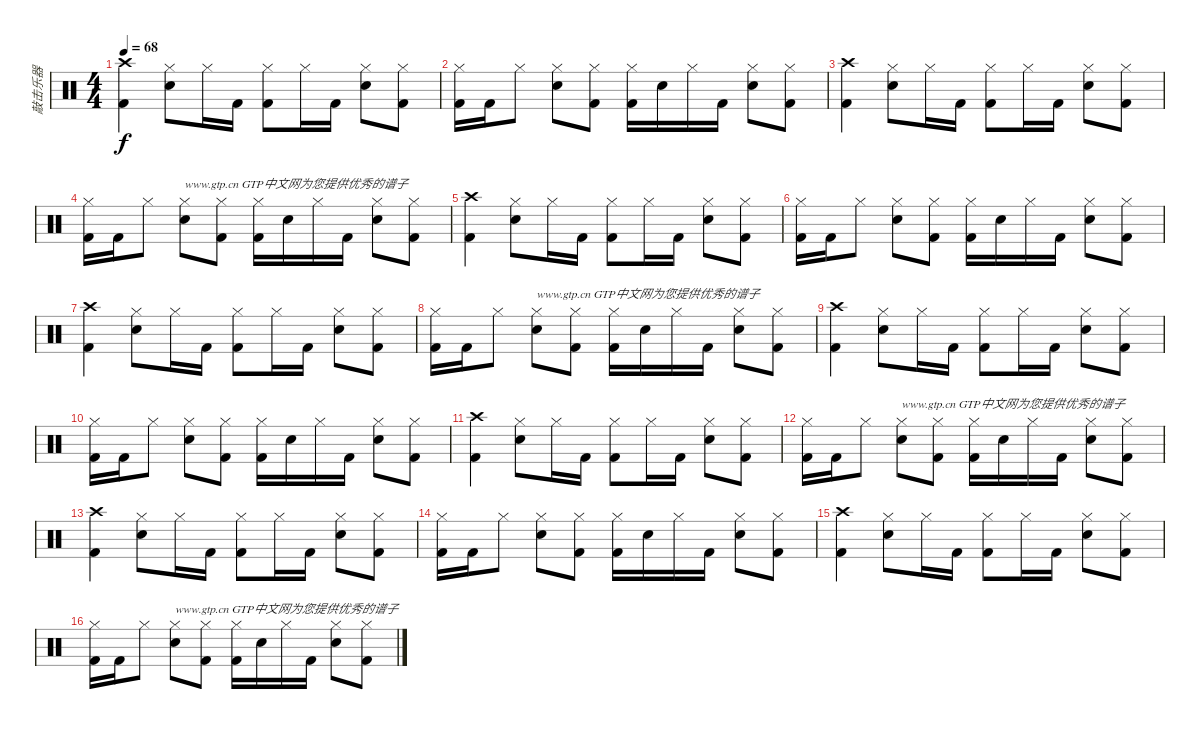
\track ("敲击乐器" "敲击乐器") {instrument percussion}
\staff {score}
\articulation defaults
\ts (4 4)
\tempo 68
\clef neutral
\ks c
("Crash high (hit)" "Kick (hit) 2").4{dy f} ("Hi-Hat (closed)" "Snare (hit) 2").8 "Hi-Hat (closed)".16 "Kick (hit) 2".16 ("Hi-Hat (closed)" "Kick (hit) 2").8 "Hi-Hat (closed)".16 "Kick (hit) 2".16 ("Hi-Hat (closed)" "Snare (hit) 2").8 ("Hi-Hat (closed)" "Kick (hit) 2").8 |
("Hi-Hat (closed)" "Kick (hit) 2").16 "Kick (hit) 2".16 "Hi-Hat (closed)".8 ("Hi-Hat (closed)" "Snare (hit) 2").8 ("Hi-Hat (closed)" "Kick (hit) 2").8 ("Hi-Hat (closed)" "Kick (hit) 2").16 "Snare (hit) 2".16 "Hi-Hat (closed)".16 "Kick (hit) 2".16 ("Hi-Hat (closed)" "Snare (hit) 2").8 ("Hi-Hat (closed)" "Kick (hit) 2").8 |
("Crash high (hit)" "Kick (hit) 2").4 ("Hi-Hat (closed)" "Snare (hit) 2").8 "Hi-Hat (closed)".16 "Kick (hit) 2".16 ("Hi-Hat (closed)" "Kick (hit) 2").8 "Hi-Hat (closed)".16 "Kick (hit) 2".16 ("Hi-Hat (closed)" "Snare (hit) 2").8 ("Hi-Hat (closed)" "Kick (hit) 2").8 |
("Hi-Hat (closed)" "Kick (hit) 2").16 "Kick (hit) 2".16 "Hi-Hat (closed)".8 ("Hi-Hat (closed)" "Snare (hit) 2").8{txt "www.gtp.cn GTP中文网为您提供优秀的谱子"} ("Hi-Hat (closed)" "Kick (hit) 2").8 ("Hi-Hat (closed)" "Kick (hit) 2").16 "Snare (hit) 2".16 "Hi-Hat (closed)".16 "Kick (hit) 2".16 ("Hi-Hat (closed)" "Snare (hit) 2").8 ("Hi-Hat (closed)" "Kick (hit) 2").8 |
("Crash high (hit)" "Kick (hit) 2").4 ("Hi-Hat (closed)" "Snare (hit) 2").8 "Hi-Hat (closed)".16 "Kick (hit) 2".16 ("Hi-Hat (closed)" "Kick (hit) 2").8 "Hi-Hat (closed)".16 "Kick (hit) 2".16 ("Hi-Hat (closed)" "Snare (hit) 2").8 ("Hi-Hat (closed)" "Kick (hit) 2").8 |
("Hi-Hat (closed)" "Kick (hit) 2").16 "Kick (hit) 2".16 "Hi-Hat (closed)".8 ("Hi-Hat (closed)" "Snare (hit) 2").8 ("Hi-Hat (closed)" "Kick (hit) 2").8 ("Hi-Hat (closed)" "Kick (hit) 2").16 "Snare (hit) 2".16 "Hi-Hat (closed)".16 "Kick (hit) 2".16 ("Hi-Hat (closed)" "Snare (hit) 2").8 ("Hi-Hat (closed)" "Kick (hit) 2").8 |
("Crash high (hit)" "Kick (hit) 2").4 ("Hi-Hat (closed)" "Snare (hit) 2").8 "Hi-Hat (closed)".16 "Kick (hit) 2".16 ("Hi-Hat (closed)" "Kick (hit) 2").8 "Hi-Hat (closed)".16 "Kick (hit) 2".16 ("Hi-Hat (closed)" "Snare (hit) 2").8 ("Hi-Hat (closed)" "Kick (hit) 2").8 |
("Hi-Hat (closed)" "Kick (hit) 2").16 "Kick (hit) 2".16 "Hi-Hat (closed)".8 ("Hi-Hat (closed)" "Snare (hit) 2").8{txt "www.gtp.cn GTP中文网为您提供优秀的谱子"} ("Hi-Hat (closed)" "Kick (hit) 2").8 ("Hi-Hat (closed)" "Kick (hit) 2").16 "Snare (hit) 2".16 "Hi-Hat (closed)".16 "Kick (hit) 2".16 ("Hi-Hat (closed)" "Snare (hit) 2").8 ("Hi-Hat (closed)" "Kick (hit) 2").8 |
("Crash high (hit)" "Kick (hit) 2").4 ("Hi-Hat (closed)" "Snare (hit) 2").8 "Hi-Hat (closed)".16 "Kick (hit) 2".16 ("Hi-Hat (closed)" "Kick (hit) 2").8 "Hi-Hat (closed)".16 "Kick (hit) 2".16 ("Hi-Hat (closed)" "Snare (hit) 2").8 ("Hi-Hat (closed)" "Kick (hit) 2").8 |
("Hi-Hat (closed)" "Kick (hit) 2").16 "Kick (hit) 2".16 "Hi-Hat (closed)".8 ("Hi-Hat (closed)" "Snare (hit) 2").8 ("Hi-Hat (closed)" "Kick (hit) 2").8 ("Hi-Hat (closed)" "Kick (hit) 2").16 "Snare (hit) 2".16 "Hi-Hat (closed)".16 "Kick (hit) 2".16 ("Hi-Hat (closed)" "Snare (hit) 2").8 ("Hi-Hat (closed)" "Kick (hit) 2").8 |
("Crash high (hit)" "Kick (hit) 2").4 ("Hi-Hat (closed)" "Snare (hit) 2").8 "Hi-Hat (closed)".16 "Kick (hit) 2".16 ("Hi-Hat (closed)" "Kick (hit) 2").8 "Hi-Hat (closed)".16 "Kick (hit) 2".16 ("Hi-Hat (closed)" "Snare (hit) 2").8 ("Hi-Hat (closed)" "Kick (hit) 2").8 |
("Hi-Hat (closed)" "Kick (hit) 2").16 "Kick (hit) 2".16 "Hi-Hat (closed)".8 ("Hi-Hat (closed)" "Snare (hit) 2").8{txt "www.gtp.cn GTP中文网为您提供优秀的谱子"} ("Hi-Hat (closed)" "Kick (hit) 2").8 ("Hi-Hat (closed)" "Kick (hit) 2").16 "Snare (hit) 2".16 "Hi-Hat (closed)".16 "Kick (hit) 2".16 ("Hi-Hat (closed)" "Snare (hit) 2").8 ("Hi-Hat (closed)" "Kick (hit) 2").8 |
("Crash high (hit)" "Kick (hit) 2").4 ("Hi-Hat (closed)" "Snare (hit) 2").8 "Hi-Hat (closed)".16 "Kick (hit) 2".16 ("Hi-Hat (closed)" "Kick (hit) 2").8 "Hi-Hat (closed)".16 "Kick (hit) 2".16 ("Hi-Hat (closed)" "Snare (hit) 2").8 ("Hi-Hat (closed)" "Kick (hit) 2").8 |
("Hi-Hat (closed)" "Kick (hit) 2").16 "Kick (hit) 2".16 "Hi-Hat (closed)".8 ("Hi-Hat (closed)" "Snare (hit) 2").8 ("Hi-Hat (closed)" "Kick (hit) 2").8 ("Hi-Hat (closed)" "Kick (hit) 2").16 "Snare (hit) 2".16 "Hi-Hat (closed)".16 "Kick (hit) 2".16 ("Hi-Hat (closed)" "Snare (hit) 2").8 ("Hi-Hat (closed)" "Kick (hit) 2").8 |
("Crash high (hit)" "Kick (hit) 2").4 ("Hi-Hat (closed)" "Snare (hit) 2").8 "Hi-Hat (closed)".16 "Kick (hit) 2".16 ("Hi-Hat (closed)" "Kick (hit) 2").8 "Hi-Hat (closed)".16 "Kick (hit) 2".16 ("Hi-Hat (closed)" "Snare (hit) 2").8 ("Hi-Hat (closed)" "Kick (hit) 2").8 |
("Hi-Hat (closed)" "Kick (hit) 2").16 "Kick (hit) 2".16 "Hi-Hat (closed)".8 ("Hi-Hat (closed)" "Snare (hit) 2").8{txt "www.gtp.cn GTP中文网为您提供优秀的谱子"} ("Hi-Hat (closed)" "Kick (hit) 2").8 ("Hi-Hat (closed)" "Kick (hit) 2").16 "Snare (hit) 2".16 "Hi-Hat (closed)".16 "Kick (hit) 2".16 ("Hi-Hat (closed)" "Snare (hit) 2").8 ("Hi-Hat (closed)" "Kick (hit) 2").8
